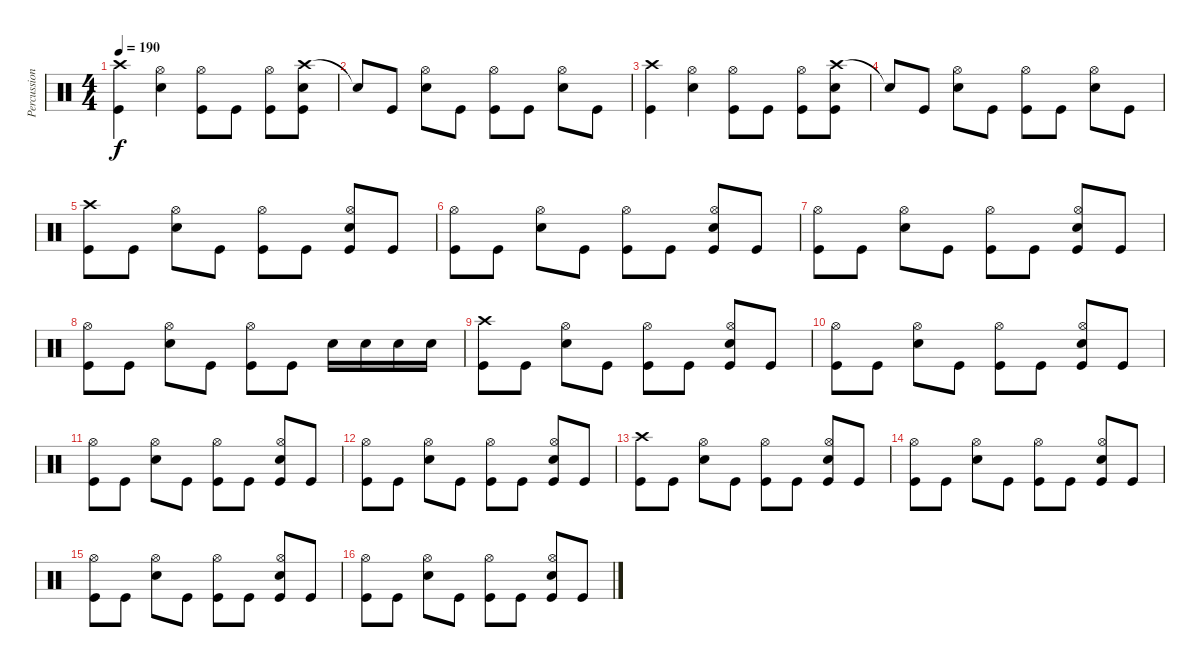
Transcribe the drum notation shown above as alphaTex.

\track ("Percussion" "Percussion") {instrument percussion}
\staff {score}
\articulation defaults
\ts (4 4)
\tempo 190
\clef neutral
\ks c
("Crash high (hit)" "Kick (hit)").4{dy f} ("Hi-Hat (open)" "Snare (hit) 2").4 ("Hi-Hat (open)" "Kick (hit)").8 "Kick (hit)".8 ("Hi-Hat (open)" "Kick (hit)").8 ("Crash high (hit)" "Snare (hit) 2" "Kick (hit)").8 |
"Snare (hit)"{t}.8 "Kick (hit)".8 ("Hi-Hat (open)" "Snare (hit) 2").8 "Kick (hit)".8 ("Hi-Hat (open)" "Kick (hit)").8 "Kick (hit)".8 ("Hi-Hat (open)" "Snare (hit) 2").8 "Kick (hit)".8 |
("Crash high (hit)" "Kick (hit)").4 ("Hi-Hat (open)" "Snare (hit) 2").4 ("Hi-Hat (open)" "Kick (hit)").8 "Kick (hit)".8 ("Hi-Hat (open)" "Kick (hit)").8 ("Crash high (hit)" "Snare (hit) 2" "Kick (hit)").8 |
"Snare (hit)"{t}.8 "Kick (hit)".8 ("Hi-Hat (open)" "Snare (hit) 2").8 "Kick (hit)".8 ("Hi-Hat (open)" "Kick (hit)").8 "Kick (hit)".8 ("Hi-Hat (open)" "Snare (hit) 2").8 "Kick (hit)".8 |
("Crash high (hit)" "Kick (hit)").8 "Kick (hit)".8 ("Hi-Hat (open)" "Snare (hit) 2").8 "Kick (hit)".8 ("Hi-Hat (open)" "Kick (hit)").8 "Kick (hit)".8 ("Hi-Hat (open)" "Snare (hit) 2" "Kick (hit)").8 "Kick (hit)".8 |
("Hi-Hat (open)" "Kick (hit)").8 "Kick (hit)".8 ("Hi-Hat (open)" "Snare (hit) 2").8 "Kick (hit)".8 ("Hi-Hat (open)" "Kick (hit)").8 "Kick (hit)".8 ("Hi-Hat (open)" "Snare (hit) 2" "Kick (hit)").8 "Kick (hit)".8 |
("Hi-Hat (open)" "Kick (hit)").8 "Kick (hit)".8 ("Hi-Hat (open)" "Snare (hit) 2").8 "Kick (hit)".8 ("Hi-Hat (open)" "Kick (hit)").8 "Kick (hit)".8 ("Hi-Hat (open)" "Snare (hit) 2" "Kick (hit)").8 "Kick (hit)".8 |
("Hi-Hat (open)" "Kick (hit)").8 "Kick (hit)".8 ("Hi-Hat (open)" "Snare (hit) 2").8 "Kick (hit)".8 ("Hi-Hat (open)" "Kick (hit)").8 "Kick (hit)".8 "Snare (hit) 2".16 "Snare (hit) 2".16 "Snare (hit) 2".16 "Snare (hit) 2".16 |
("Crash high (hit)" "Kick (hit)").8 "Kick (hit)".8 ("Hi-Hat (open)" "Snare (hit) 2").8 "Kick (hit)".8 ("Hi-Hat (open)" "Kick (hit)").8 "Kick (hit)".8 ("Hi-Hat (open)" "Snare (hit) 2" "Kick (hit)").8 "Kick (hit)".8 |
("Hi-Hat (open)" "Kick (hit)").8 "Kick (hit)".8 ("Hi-Hat (open)" "Snare (hit) 2").8 "Kick (hit)".8 ("Hi-Hat (open)" "Kick (hit)").8 "Kick (hit)".8 ("Hi-Hat (open)" "Snare (hit) 2" "Kick (hit)").8 "Kick (hit)".8 |
("Hi-Hat (open)" "Kick (hit)").8 "Kick (hit)".8 ("Hi-Hat (open)" "Snare (hit) 2").8 "Kick (hit)".8 ("Hi-Hat (open)" "Kick (hit)").8 "Kick (hit)".8 ("Hi-Hat (open)" "Snare (hit) 2" "Kick (hit)").8 "Kick (hit)".8 |
("Hi-Hat (open)" "Kick (hit)").8 "Kick (hit)".8 ("Hi-Hat (open)" "Snare (hit) 2").8 "Kick (hit)".8 ("Hi-Hat (open)" "Kick (hit)").8 "Kick (hit)".8 ("Hi-Hat (open)" "Snare (hit) 2" "Kick (hit)").8 "Kick (hit)".8 |
("Crash high (hit)" "Kick (hit)").8 "Kick (hit)".8 ("Hi-Hat (open)" "Snare (hit) 2").8 "Kick (hit)".8 ("Hi-Hat (open)" "Kick (hit)").8 "Kick (hit)".8 ("Hi-Hat (open)" "Snare (hit) 2" "Kick (hit)").8 "Kick (hit)".8 |
("Hi-Hat (open)" "Kick (hit)").8 "Kick (hit)".8 ("Hi-Hat (open)" "Snare (hit) 2").8 "Kick (hit)".8 ("Hi-Hat (open)" "Kick (hit)").8 "Kick (hit)".8 ("Hi-Hat (open)" "Snare (hit) 2" "Kick (hit)").8 "Kick (hit)".8 |
("Hi-Hat (open)" "Kick (hit)").8 "Kick (hit)".8 ("Hi-Hat (open)" "Snare (hit) 2").8 "Kick (hit)".8 ("Hi-Hat (open)" "Kick (hit)").8 "Kick (hit)".8 ("Hi-Hat (open)" "Snare (hit) 2" "Kick (hit)").8 "Kick (hit)".8 |
("Hi-Hat (open)" "Kick (hit)").8 "Kick (hit)".8 ("Hi-Hat (open)" "Snare (hit) 2").8 "Kick (hit)".8 ("Hi-Hat (open)" "Kick (hit)").8 "Kick (hit)".8 ("Hi-Hat (open)" "Snare (hit) 2" "Kick (hit)").8 "Kick (hit)".8
